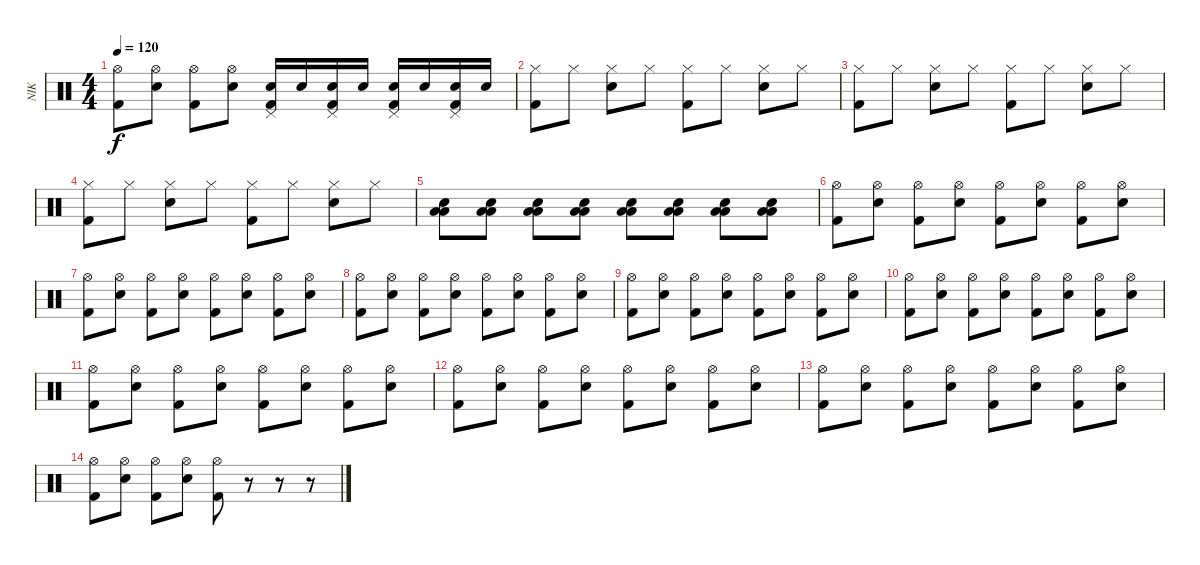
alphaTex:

\track ("NIK" "NIK") {instrument percussion}
\staff {score}
\articulation defaults
\ts (4 4)
\tempo 120
\clef neutral
\ks c
("Hi-Hat (open)" "Kick (hit) 2").8{dy f} ("Hi-Hat (open)" "Electric Snare (hit)").8 ("Hi-Hat (open)" "Kick (hit) 2").8 ("Hi-Hat (open)" "Electric Snare (hit)").8 ("Electric Snare (hit)" "Kick (hit) 2" "Pedal Hi-Hat (hit)").16 "Electric Snare (hit)".16 ("Electric Snare (hit)" "Kick (hit) 2" "Pedal Hi-Hat (hit)").16 "Electric Snare (hit)".16 ("Electric Snare (hit)" "Kick (hit) 2" "Pedal Hi-Hat (hit)").16 "Electric Snare (hit)".16 ("Electric Snare (hit)" "Kick (hit) 2" "Pedal Hi-Hat (hit)").16 "Electric Snare (hit)".16 |
("Hi-Hat (closed)" "Kick (hit) 2").8 "Hi-Hat (closed)".8 ("Hi-Hat (closed)" "Electric Snare (hit)").8 "Hi-Hat (closed)".8 ("Hi-Hat (closed)" "Kick (hit) 2").8 "Hi-Hat (closed)".8 ("Hi-Hat (closed)" "Electric Snare (hit)").8 "Hi-Hat (closed)".8 |
("Hi-Hat (closed)" "Kick (hit) 2").8 "Hi-Hat (closed)".8 ("Hi-Hat (closed)" "Electric Snare (hit)").8 "Hi-Hat (closed)".8 ("Hi-Hat (closed)" "Kick (hit) 2").8 "Hi-Hat (closed)".8 ("Hi-Hat (closed)" "Electric Snare (hit)").8 "Hi-Hat (closed)".8 |
("Hi-Hat (closed)" "Kick (hit) 2").8 "Hi-Hat (closed)".8 ("Hi-Hat (closed)" "Electric Snare (hit)").8 "Hi-Hat (closed)".8 ("Hi-Hat (closed)" "Kick (hit) 2").8 "Hi-Hat (closed)".8 ("Hi-Hat (closed)" "Electric Snare (hit)").8 "Hi-Hat (closed)".8 |
("Low Tom (hit)" "Low Floor Tom (hit)" "Snare (hit) 2").8 ("Low Tom (hit)" "Low Floor Tom (hit)" "Snare (hit) 2").8 ("Low Tom (hit)" "Low Floor Tom (hit)" "Snare (hit) 2").8 ("Low Tom (hit)" "Low Floor Tom (hit)" "Snare (hit) 2").8 ("Low Tom (hit)" "Low Floor Tom (hit)" "Snare (hit) 2").8 ("Low Tom (hit)" "Low Floor Tom (hit)" "Snare (hit) 2").8 ("Low Tom (hit)" "Low Floor Tom (hit)" "Snare (hit) 2").8 ("Low Tom (hit)" "Low Floor Tom (hit)" "Snare (hit) 2").8 |
("Hi-Hat (open)" "Kick (hit) 2").8 ("Hi-Hat (open)" "Electric Snare (hit)").8 ("Hi-Hat (open)" "Kick (hit) 2").8 ("Hi-Hat (open)" "Electric Snare (hit)").8 ("Hi-Hat (open)" "Kick (hit) 2").8 ("Hi-Hat (open)" "Electric Snare (hit)").8 ("Hi-Hat (open)" "Kick (hit) 2").8 ("Hi-Hat (open)" "Electric Snare (hit)").8 |
("Hi-Hat (open)" "Kick (hit) 2").8 ("Hi-Hat (open)" "Electric Snare (hit)").8 ("Hi-Hat (open)" "Kick (hit) 2").8 ("Hi-Hat (open)" "Electric Snare (hit)").8 ("Hi-Hat (open)" "Kick (hit) 2").8 ("Hi-Hat (open)" "Electric Snare (hit)").8 ("Hi-Hat (open)" "Kick (hit) 2").8 ("Hi-Hat (open)" "Electric Snare (hit)").8 |
("Hi-Hat (open)" "Kick (hit) 2").8 ("Hi-Hat (open)" "Electric Snare (hit)").8 ("Hi-Hat (open)" "Kick (hit) 2").8 ("Hi-Hat (open)" "Electric Snare (hit)").8 ("Hi-Hat (open)" "Kick (hit) 2").8 ("Hi-Hat (open)" "Electric Snare (hit)").8 ("Hi-Hat (open)" "Kick (hit) 2").8 ("Hi-Hat (open)" "Electric Snare (hit)").8 |
("Hi-Hat (open)" "Kick (hit) 2").8 ("Hi-Hat (open)" "Electric Snare (hit)").8 ("Hi-Hat (open)" "Kick (hit) 2").8 ("Hi-Hat (open)" "Electric Snare (hit)").8 ("Hi-Hat (open)" "Kick (hit) 2").8 ("Hi-Hat (open)" "Electric Snare (hit)").8 ("Hi-Hat (open)" "Kick (hit) 2").8 ("Hi-Hat (open)" "Electric Snare (hit)").8 |
("Hi-Hat (open)" "Kick (hit) 2").8 ("Hi-Hat (open)" "Electric Snare (hit)").8 ("Hi-Hat (open)" "Kick (hit) 2").8 ("Hi-Hat (open)" "Electric Snare (hit)").8 ("Hi-Hat (open)" "Kick (hit) 2").8 ("Hi-Hat (open)" "Electric Snare (hit)").8 ("Hi-Hat (open)" "Kick (hit) 2").8 ("Hi-Hat (open)" "Electric Snare (hit)").8 |
("Hi-Hat (open)" "Kick (hit) 2").8 ("Hi-Hat (open)" "Electric Snare (hit)").8 ("Hi-Hat (open)" "Kick (hit) 2").8 ("Hi-Hat (open)" "Electric Snare (hit)").8 ("Hi-Hat (open)" "Kick (hit) 2").8 ("Hi-Hat (open)" "Electric Snare (hit)").8 ("Hi-Hat (open)" "Kick (hit) 2").8 ("Hi-Hat (open)" "Electric Snare (hit)").8 |
("Hi-Hat (open)" "Kick (hit) 2").8 ("Hi-Hat (open)" "Electric Snare (hit)").8 ("Hi-Hat (open)" "Kick (hit) 2").8 ("Hi-Hat (open)" "Electric Snare (hit)").8 ("Hi-Hat (open)" "Kick (hit) 2").8 ("Hi-Hat (open)" "Electric Snare (hit)").8 ("Hi-Hat (open)" "Kick (hit) 2").8 ("Hi-Hat (open)" "Electric Snare (hit)").8 |
("Hi-Hat (open)" "Kick (hit) 2").8 ("Hi-Hat (open)" "Electric Snare (hit)").8 ("Hi-Hat (open)" "Kick (hit) 2").8 ("Hi-Hat (open)" "Electric Snare (hit)").8 ("Hi-Hat (open)" "Kick (hit) 2").8 ("Hi-Hat (open)" "Electric Snare (hit)").8 ("Hi-Hat (open)" "Kick (hit) 2").8 ("Hi-Hat (open)" "Electric Snare (hit)").8 |
("Hi-Hat (open)" "Kick (hit) 2").8 ("Hi-Hat (open)" "Electric Snare (hit)").8 ("Hi-Hat (open)" "Kick (hit) 2").8 ("Hi-Hat (open)" "Electric Snare (hit)").8 ("Hi-Hat (open)" "Kick (hit) 2").8 r.8 r.8 r.8
